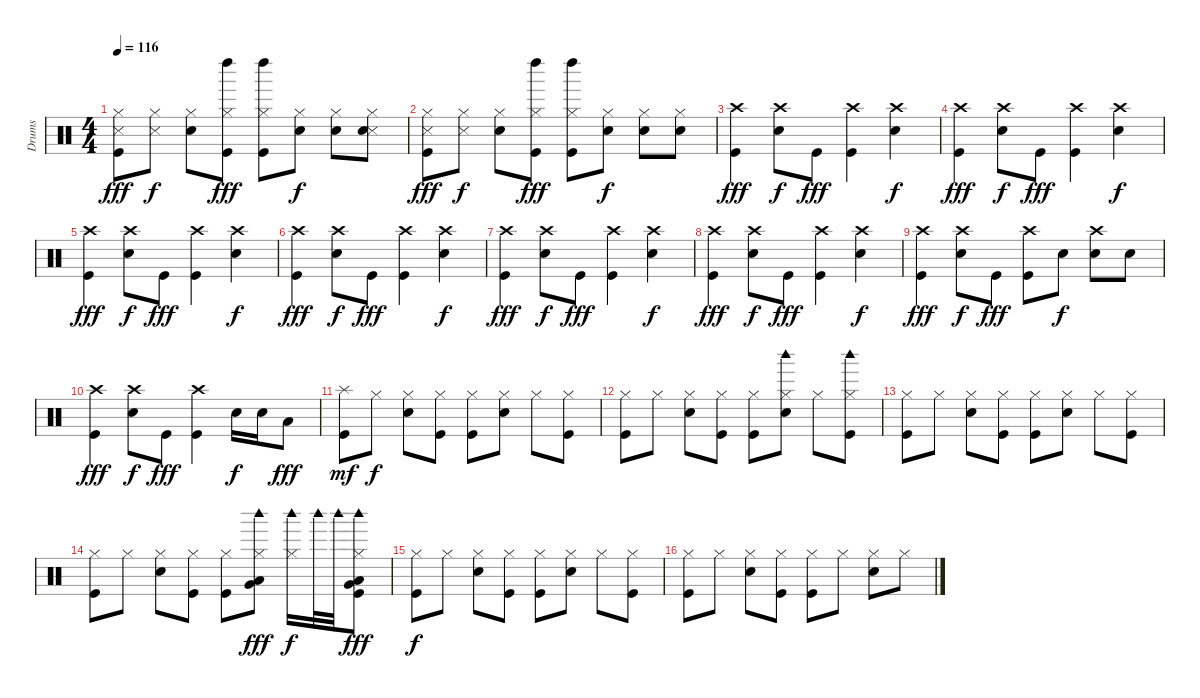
\track ("Drums" "Drums") {instrument percussion}
\staff {score}
\articulation defaults
\ts (4 4)
\tempo 116
\clef neutral
\ks c
("Hi-Hat (closed)" "Snare (side stick) 3" "Kick (hit)").8{dy fff} ("Hi-Hat (closed)" "Snare (side stick) 3").8{dy f} ("Hi-Hat (closed)" "Snare (hit) 2").8 ("Hi-Hat (closed)" "Left Maraca (hit)" "Kick (hit)").8{dy fff} ("Hi-Hat (closed)" "Left Maraca (hit)" "Kick (hit)").8 ("Hi-Hat (closed)" "Snare (hit) 2").8{dy f} ("Hi-Hat (closed)" "Snare (hit) 2").8 ("Hi-Hat (closed)" "Snare (side stick) 3" "Snare (hit) 2").8 |
("Hi-Hat (closed)" "Snare (side stick) 3" "Kick (hit)").8{dy fff} ("Hi-Hat (closed)" "Snare (side stick) 3").8{dy f} ("Hi-Hat (closed)" "Snare (hit) 2").8 ("Hi-Hat (closed)" "Left Maraca (hit)" "Kick (hit)").8{dy fff} ("Hi-Hat (closed)" "Left Maraca (hit)" "Kick (hit)").8 ("Hi-Hat (closed)" "Snare (hit) 2").8{dy f} ("Hi-Hat (closed)" "Snare (hit) 2").8 ("Hi-Hat (closed)" "Snare (hit) 2").8 |
("Crash high (hit)" "Kick (hit)").4{dy fff} ("Crash high (hit)" "Snare (hit) 2").8{dy f} "Kick (hit)".8{dy fff} ("Crash high (hit)" "Kick (hit)").4 ("Crash high (hit)" "Snare (hit) 2").4{dy f} |
("Crash high (hit)" "Kick (hit)").4{dy fff} ("Crash high (hit)" "Snare (hit) 2").8{dy f} "Kick (hit)".8{dy fff} ("Crash high (hit)" "Kick (hit)").4 ("Crash high (hit)" "Snare (hit) 2").4{dy f} |
("Crash high (hit)" "Kick (hit)").4{dy fff} ("Crash high (hit)" "Snare (hit) 2").8{dy f} "Kick (hit)".8{dy fff} ("Crash high (hit)" "Kick (hit)").4 ("Crash high (hit)" "Snare (hit) 2").4{dy f} |
("Crash high (hit)" "Kick (hit)").4{dy fff} ("Crash high (hit)" "Snare (hit) 2").8{dy f} "Kick (hit)".8{dy fff} ("Crash high (hit)" "Kick (hit)").4 ("Crash high (hit)" "Snare (hit) 2").4{dy f} |
("Crash high (hit)" "Kick (hit)").4{dy fff} ("Crash high (hit)" "Snare (hit) 2").8{dy f} "Kick (hit)".8{dy fff} ("Crash high (hit)" "Kick (hit)").4 ("Crash high (hit)" "Snare (hit) 2").4{dy f} |
("Crash high (hit)" "Kick (hit)").4{dy fff} ("Crash high (hit)" "Snare (hit) 2").8{dy f} "Kick (hit)".8{dy fff} ("Crash high (hit)" "Kick (hit)").4 ("Crash high (hit)" "Snare (hit) 2").4{dy f} |
("Crash high (hit)" "Kick (hit)").4{dy fff} ("Crash high (hit)" "Snare (hit) 2").8{dy f} "Kick (hit)".8{dy fff} ("Crash high (hit)" "Kick (hit)").8 "Snare (hit) 2".8{dy f} ("Crash high (hit)" "Snare (hit) 2").8 "Snare (hit) 2".8 |
("Crash high (hit)" "Kick (hit)").4{dy fff} ("Crash high (hit)" "Snare (hit) 2").8{dy f} "Kick (hit)".8{dy fff} ("Crash high (hit)" "Kick (hit)").4 "Snare (hit) 2".16{dy f} "Snare (hit) 2".16 "Low Tom (hit)".8{dy fff} |
("Splash (hit)" "Kick (hit)").8{dy mf} "Hi-Hat (closed)".8{dy f} ("Hi-Hat (closed)" "Snare (hit) 2").8 ("Hi-Hat (closed)" "Kick (hit)").8 ("Hi-Hat (closed)" "Kick (hit)").8 ("Hi-Hat (closed)" "Snare (hit) 2").8 "Hi-Hat (closed)".8 ("Hi-Hat (closed)" "Kick (hit)").8 |
("Hi-Hat (closed)" "Kick (hit)").8 "Hi-Hat (closed)".8 ("Hi-Hat (closed)" "Snare (hit) 2").8 ("Hi-Hat (closed)" "Kick (hit)").8 ("Hi-Hat (closed)" "Kick (hit)").8 ("Hi-Hat (closed)" "Woodblock high (hit)" "Snare (hit) 2").8 "Hi-Hat (closed)".8 ("Hi-Hat (closed)" "Woodblock high (hit)" "Kick (hit)").8 |
("Hi-Hat (closed)" "Kick (hit)").8 "Hi-Hat (closed)".8 ("Hi-Hat (closed)" "Snare (hit) 2").8 ("Hi-Hat (closed)" "Kick (hit)").8 ("Hi-Hat (closed)" "Kick (hit)").8 ("Hi-Hat (closed)" "Snare (hit) 2").8 "Hi-Hat (closed)".8 ("Hi-Hat (closed)" "Kick (hit)").8 |
("Hi-Hat (closed)" "Kick (hit)").8 "Hi-Hat (closed)".8 ("Hi-Hat (closed)" "Snare (hit) 2").8 ("Hi-Hat (closed)" "Kick (hit)").8 ("Hi-Hat (closed)" "Kick (hit)").8 ("Hi-Hat (closed)" "Woodblock high (hit)" "Low Tom (hit)" "Very Low Tom (hit)").8{dy fff} ("Hi-Hat (closed)" "Woodblock high (hit)").16{dy f} "Woodblock high (hit)".32 "Woodblock high (hit)".32 ("Hi-Hat (closed)" "Woodblock high (hit)" "Low Tom (hit)" "Very Low Tom (hit)" "Kick (hit)").8{dy fff} |
("Hi-Hat (closed)" "Kick (hit)").8{dy f} "Hi-Hat (closed)".8 ("Hi-Hat (closed)" "Snare (hit) 2").8 ("Hi-Hat (closed)" "Kick (hit)").8 ("Hi-Hat (closed)" "Kick (hit)").8 ("Hi-Hat (closed)" "Snare (hit) 2").8 "Hi-Hat (closed)".8 ("Hi-Hat (closed)" "Kick (hit)").8 |
("Hi-Hat (closed)" "Kick (hit)").8 "Hi-Hat (closed)".8 ("Hi-Hat (closed)" "Snare (hit) 2").8 ("Hi-Hat (closed)" "Kick (hit)").8 ("Hi-Hat (closed)" "Kick (hit)").8 "Hi-Hat (closed)".8 ("Hi-Hat (closed)" "Snare (hit) 2").8 "Hi-Hat (closed)".8
